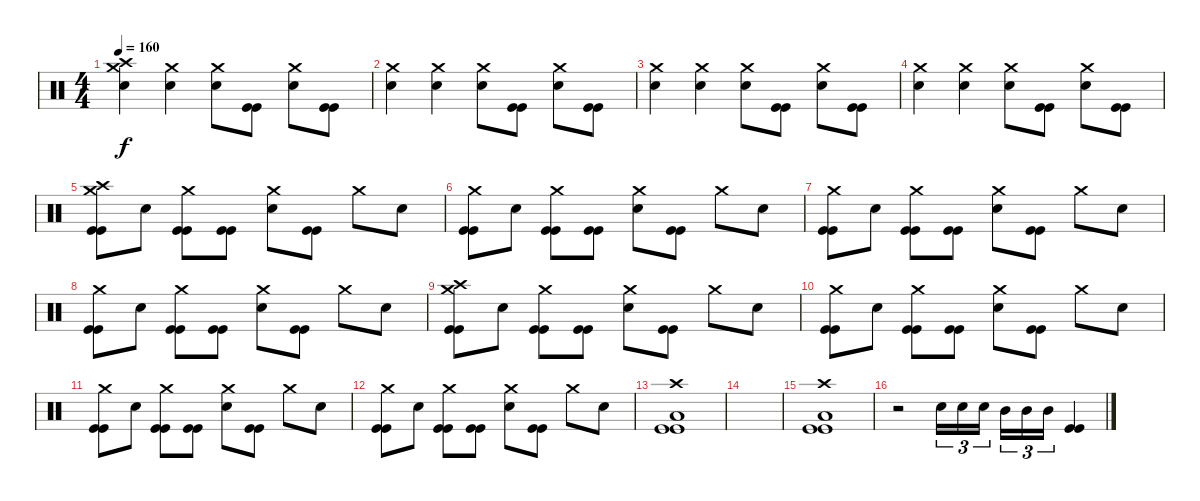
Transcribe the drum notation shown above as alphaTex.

\track ("  " "  ") {instrument percussion}
\staff {score}
\articulation defaults
\ts (4 4)
\tempo 160
\clef neutral
\ks c
("Crash high (hit)" "Crash medium (hit)" "Electric Snare (hit)").4{dy f} ("Crash medium (hit)" "Electric Snare (hit)").4 ("Crash medium (hit)" "Electric Snare (hit)").8 ("Kick (hit)" "Kick (hit)").8 ("Crash medium (hit)" "Electric Snare (hit)").8 ("Kick (hit)" "Kick (hit)").8 |
("Crash medium (hit)" "Electric Snare (hit)").4 ("Crash medium (hit)" "Electric Snare (hit)").4 ("Crash medium (hit)" "Electric Snare (hit)").8 ("Kick (hit)" "Kick (hit)").8 ("Crash medium (hit)" "Electric Snare (hit)").8 ("Kick (hit)" "Kick (hit)").8 |
("Crash medium (hit)" "Electric Snare (hit)").4 ("Crash medium (hit)" "Electric Snare (hit)").4 ("Crash medium (hit)" "Electric Snare (hit)").8 ("Kick (hit)" "Kick (hit)").8 ("Crash medium (hit)" "Electric Snare (hit)").8 ("Kick (hit)" "Kick (hit)").8 |
("Crash medium (hit)" "Electric Snare (hit)").4 ("Crash medium (hit)" "Electric Snare (hit)").4 ("Crash medium (hit)" "Electric Snare (hit)").8 ("Kick (hit)" "Kick (hit)").8 ("Crash medium (hit)" "Electric Snare (hit)").8 ("Kick (hit)" "Kick (hit)").8 |
("Crash high (hit)" "Crash medium (hit)" "Kick (hit)" "Kick (hit)").8 "Electric Snare (hit)".8 ("Crash medium (hit)" "Kick (hit)" "Kick (hit)").8 ("Kick (hit)" "Kick (hit)").8 ("Crash medium (hit)" "Electric Snare (hit)").8 ("Kick (hit)" "Kick (hit)").8 "Crash medium (hit)".8 "Electric Snare (hit)".8 |
("Crash medium (hit)" "Kick (hit)" "Kick (hit)").8 "Electric Snare (hit)".8 ("Crash medium (hit)" "Kick (hit)" "Kick (hit)").8 ("Kick (hit)" "Kick (hit)").8 ("Crash medium (hit)" "Electric Snare (hit)").8 ("Kick (hit)" "Kick (hit)").8 "Crash medium (hit)".8 "Electric Snare (hit)".8 |
("Crash medium (hit)" "Kick (hit)" "Kick (hit)").8 "Electric Snare (hit)".8 ("Crash medium (hit)" "Kick (hit)" "Kick (hit)").8 ("Kick (hit)" "Kick (hit)").8 ("Crash medium (hit)" "Electric Snare (hit)").8 ("Kick (hit)" "Kick (hit)").8 "Crash medium (hit)".8 "Electric Snare (hit)".8 |
("Crash medium (hit)" "Kick (hit)" "Kick (hit)").8 "Electric Snare (hit)".8 ("Crash medium (hit)" "Kick (hit)" "Kick (hit)").8 ("Kick (hit)" "Kick (hit)").8 ("Crash medium (hit)" "Electric Snare (hit)").8 ("Kick (hit)" "Kick (hit)").8 "Crash medium (hit)".8 "Electric Snare (hit)".8 |
("Crash high (hit)" "Crash medium (hit)" "Kick (hit)" "Kick (hit)").8 "Electric Snare (hit)".8 ("Crash medium (hit)" "Kick (hit)" "Kick (hit)").8 ("Kick (hit)" "Kick (hit)").8 ("Crash medium (hit)" "Electric Snare (hit)").8 ("Kick (hit)" "Kick (hit)").8 "Crash medium (hit)".8 "Electric Snare (hit)".8 |
("Crash medium (hit)" "Kick (hit)" "Kick (hit)").8 "Electric Snare (hit)".8 ("Crash medium (hit)" "Kick (hit)" "Kick (hit)").8 ("Kick (hit)" "Kick (hit)").8 ("Crash medium (hit)" "Electric Snare (hit)").8 ("Kick (hit)" "Kick (hit)").8 "Crash medium (hit)".8 "Electric Snare (hit)".8 |
("Crash medium (hit)" "Kick (hit)" "Kick (hit)").8 "Electric Snare (hit)".8 ("Crash medium (hit)" "Kick (hit)" "Kick (hit)").8 ("Kick (hit)" "Kick (hit)").8 ("Crash medium (hit)" "Electric Snare (hit)").8 ("Kick (hit)" "Kick (hit)").8 "Crash medium (hit)".8 "Electric Snare (hit)".8 |
("Crash medium (hit)" "Kick (hit)" "Kick (hit)").8 "Electric Snare (hit)".8 ("Crash medium (hit)" "Kick (hit)" "Kick (hit)").8 ("Kick (hit)" "Kick (hit)").8 ("Crash medium (hit)" "Electric Snare (hit)").8 ("Kick (hit)" "Kick (hit)").8 "Crash medium (hit)".8 "Electric Snare (hit)".8 |
("Crash high (hit)" "Low Floor Tom (hit)" "Kick (hit)" "Kick (hit)").1 |
|
("Crash high (hit)" "Low Floor Tom (hit)" "Kick (hit)" "Kick (hit)").1 |
r.2 "Electric Snare (hit)".16{tu (3 2)} "Electric Snare (hit)".16{tu (3 2)} "Electric Snare (hit)".16{tu (3 2) beam splitsecondary} "Mid Tom (hit)".16{tu (3 2)} "Mid Tom (hit)".16{tu (3 2)} "Mid Tom (hit)".16{tu (3 2)} ("Kick (hit)" "Kick (hit)").4
